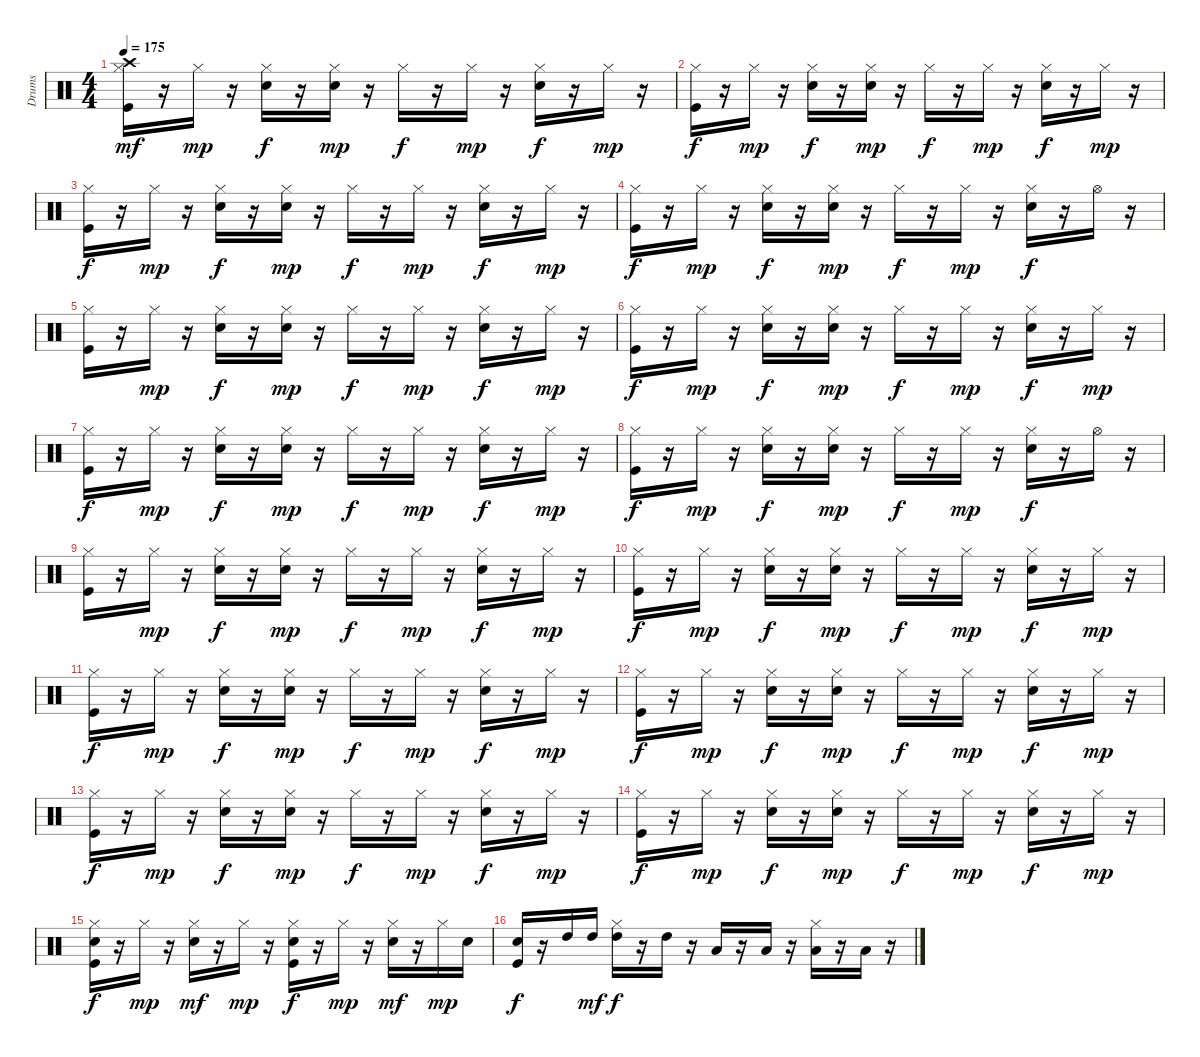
\track ("Drums" "Drums") {instrument percussion}
\staff {score}
\articulation defaults
\ts (4 4)
\tempo 175
\clef neutral
\ks c
("Kick (hit)" "Hi-Hat (closed)" "Crash high (hit)").16{dy mf} r.16 "Hi-Hat (closed)".16{dy mp} r.16 ("Snare (hit) 2" "Hi-Hat (closed)").16{dy f} r.16 ("Snare (hit) 2" "Hi-Hat (closed)").16{dy mp} r.16 "Hi-Hat (closed)".16{dy f} r.16 "Hi-Hat (closed)".16{dy mp} r.16 ("Snare (hit) 2" "Hi-Hat (closed)").16{dy f} r.16 "Hi-Hat (closed)".16{dy mp} r.16 |
("Kick (hit)" "Hi-Hat (closed)").16{dy f} r.16 "Hi-Hat (closed)".16{dy mp} r.16 ("Snare (hit) 2" "Hi-Hat (closed)").16{dy f} r.16 ("Snare (hit) 2" "Hi-Hat (closed)").16{dy mp} r.16 "Hi-Hat (closed)".16{dy f} r.16 "Hi-Hat (closed)".16{dy mp} r.16 ("Snare (hit) 2" "Hi-Hat (closed)").16{dy f} r.16 "Hi-Hat (closed)".16{dy mp} r.16 |
("Kick (hit)" "Hi-Hat (closed)").16{dy f} r.16 "Hi-Hat (closed)".16{dy mp} r.16 ("Snare (hit) 2" "Hi-Hat (closed)").16{dy f} r.16 ("Snare (hit) 2" "Hi-Hat (closed)").16{dy mp} r.16 "Hi-Hat (closed)".16{dy f} r.16 "Hi-Hat (closed)".16{dy mp} r.16 ("Snare (hit) 2" "Hi-Hat (closed)").16{dy f} r.16 "Hi-Hat (closed)".16{dy mp} r.16 |
("Kick (hit)" "Hi-Hat (closed)").16{dy f} r.16 "Hi-Hat (closed)".16{dy mp} r.16 ("Snare (hit) 2" "Hi-Hat (closed)").16{dy f} r.16 ("Snare (hit) 2" "Hi-Hat (closed)").16{dy mp} r.16 "Hi-Hat (closed)".16{dy f} r.16 "Hi-Hat (closed)".16{dy mp} r.16 ("Snare (hit) 2" "Hi-Hat (closed)").16{dy f} r.16 "Hi-Hat (open)".16 r.16 |
("Kick (hit)" "Hi-Hat (closed)").16 r.16 "Hi-Hat (closed)".16{dy mp} r.16 ("Snare (hit) 2" "Hi-Hat (closed)").16{dy f} r.16 ("Snare (hit) 2" "Hi-Hat (closed)").16{dy mp} r.16 "Hi-Hat (closed)".16{dy f} r.16 "Hi-Hat (closed)".16{dy mp} r.16 ("Snare (hit) 2" "Hi-Hat (closed)").16{dy f} r.16 "Hi-Hat (closed)".16{dy mp} r.16 |
("Kick (hit)" "Hi-Hat (closed)").16{dy f} r.16 "Hi-Hat (closed)".16{dy mp} r.16 ("Snare (hit) 2" "Hi-Hat (closed)").16{dy f} r.16 ("Snare (hit) 2" "Hi-Hat (closed)").16{dy mp} r.16 "Hi-Hat (closed)".16{dy f} r.16 "Hi-Hat (closed)".16{dy mp} r.16 ("Snare (hit) 2" "Hi-Hat (closed)").16{dy f} r.16 "Hi-Hat (closed)".16{dy mp} r.16 |
("Kick (hit)" "Hi-Hat (closed)").16{dy f} r.16 "Hi-Hat (closed)".16{dy mp} r.16 ("Snare (hit) 2" "Hi-Hat (closed)").16{dy f} r.16 ("Snare (hit) 2" "Hi-Hat (closed)").16{dy mp} r.16 "Hi-Hat (closed)".16{dy f} r.16 "Hi-Hat (closed)".16{dy mp} r.16 ("Snare (hit) 2" "Hi-Hat (closed)").16{dy f} r.16 "Hi-Hat (closed)".16{dy mp} r.16 |
("Kick (hit)" "Hi-Hat (closed)").16{dy f} r.16 "Hi-Hat (closed)".16{dy mp} r.16 ("Snare (hit) 2" "Hi-Hat (closed)").16{dy f} r.16 ("Snare (hit) 2" "Hi-Hat (closed)").16{dy mp} r.16 "Hi-Hat (closed)".16{dy f} r.16 "Hi-Hat (closed)".16{dy mp} r.16 ("Snare (hit) 2" "Hi-Hat (closed)").16{dy f} r.16 "Hi-Hat (open)".16 r.16 |
("Kick (hit)" "Hi-Hat (closed)").16 r.16 "Hi-Hat (closed)".16{dy mp} r.16 ("Snare (hit) 2" "Hi-Hat (closed)").16{dy f} r.16 ("Snare (hit) 2" "Hi-Hat (closed)").16{dy mp} r.16 "Hi-Hat (closed)".16{dy f} r.16 "Hi-Hat (closed)".16{dy mp} r.16 ("Snare (hit) 2" "Hi-Hat (closed)").16{dy f} r.16 "Hi-Hat (closed)".16{dy mp} r.16 |
("Kick (hit)" "Hi-Hat (closed)").16{dy f} r.16 "Hi-Hat (closed)".16{dy mp} r.16 ("Snare (hit) 2" "Hi-Hat (closed)").16{dy f} r.16 ("Snare (hit) 2" "Hi-Hat (closed)").16{dy mp} r.16 "Hi-Hat (closed)".16{dy f} r.16 "Hi-Hat (closed)".16{dy mp} r.16 ("Snare (hit) 2" "Hi-Hat (closed)").16{dy f} r.16 "Hi-Hat (closed)".16{dy mp} r.16 |
("Kick (hit)" "Hi-Hat (closed)").16{dy f} r.16 "Hi-Hat (closed)".16{dy mp} r.16 ("Snare (hit) 2" "Hi-Hat (closed)").16{dy f} r.16 ("Snare (hit) 2" "Hi-Hat (closed)").16{dy mp} r.16 "Hi-Hat (closed)".16{dy f} r.16 "Hi-Hat (closed)".16{dy mp} r.16 ("Snare (hit) 2" "Hi-Hat (closed)").16{dy f} r.16 "Hi-Hat (closed)".16{dy mp} r.16 |
("Kick (hit)" "Hi-Hat (closed)").16{dy f} r.16 "Hi-Hat (closed)".16{dy mp} r.16 ("Snare (hit) 2" "Hi-Hat (closed)").16{dy f} r.16 ("Snare (hit) 2" "Hi-Hat (closed)").16{dy mp} r.16 "Hi-Hat (closed)".16{dy f} r.16 "Hi-Hat (closed)".16{dy mp} r.16 ("Snare (hit) 2" "Hi-Hat (closed)").16{dy f} r.16 "Hi-Hat (closed)".16{dy mp} r.16 |
("Kick (hit)" "Hi-Hat (closed)").16{dy f} r.16 "Hi-Hat (closed)".16{dy mp} r.16 ("Snare (hit) 2" "Hi-Hat (closed)").16{dy f} r.16 ("Snare (hit) 2" "Hi-Hat (closed)").16{dy mp} r.16 "Hi-Hat (closed)".16{dy f} r.16 "Hi-Hat (closed)".16{dy mp} r.16 ("Snare (hit) 2" "Hi-Hat (closed)").16{dy f} r.16 "Hi-Hat (closed)".16{dy mp} r.16 |
("Kick (hit)" "Hi-Hat (closed)").16{dy f} r.16 "Hi-Hat (closed)".16{dy mp} r.16 ("Snare (hit) 2" "Hi-Hat (closed)").16{dy f} r.16 ("Snare (hit) 2" "Hi-Hat (closed)").16{dy mp} r.16 "Hi-Hat (closed)".16{dy f} r.16 "Hi-Hat (closed)".16{dy mp} r.16 ("Snare (hit) 2" "Hi-Hat (closed)").16{dy f} r.16 "Hi-Hat (closed)".16{dy mp} r.16 |
("Kick (hit)" "Snare (hit) 2" "Hi-Hat (closed)").16{dy f} r.16 "Hi-Hat (closed)".16{dy mp} r.16 ("Snare (hit) 2" "Hi-Hat (closed)").16{dy mf} r.16 "Hi-Hat (closed)".16{dy mp} r.16 ("Kick (hit)" "Snare (hit) 2" "Hi-Hat (closed)").16{dy f} r.16 "Hi-Hat (closed)".16{dy mp} r.16 ("Snare (hit) 2" "Hi-Hat (closed)").16{dy mf} r.16 "Hi-Hat (closed)".16{dy mp} "Snare (hit) 2".16 |
("Kick (hit)" "Snare (hit) 2").16{dy f} r.16 "High Tom (hit)".16 "High Tom (hit)".16{dy mf} ("Hi-Hat (closed)" "High Tom (hit)").16{dy f} r.16 "High Tom (hit)".16 r.16 "Low Tom (hit)".16 r.16 "Low Tom (hit)".16 r.16 ("Hi-Hat (closed)" "Low Floor Tom (hit)").16 r.16 "Low Floor Tom (hit)".16 r.16
